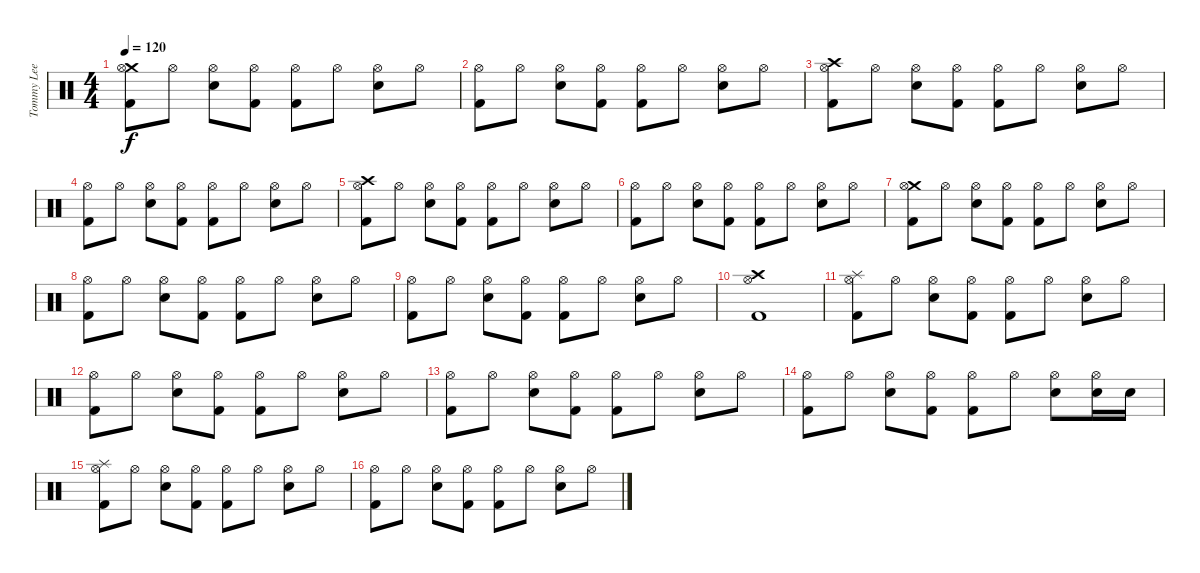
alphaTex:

\track ("Tommy Lee" "Tommy Lee") {instrument percussion}
\staff {score}
\articulation defaults
\ts (4 4)
\tempo 120
\clef neutral
\ks c
("Crash medium (hit)" "Hi-Hat (open)" "Kick (hit) 2").8{dy f} "Hi-Hat (open)".8 ("Hi-Hat (open)" "Electric Snare (hit)").8 ("Hi-Hat (open)" "Kick (hit) 2").8 ("Hi-Hat (open)" "Kick (hit) 2").8 "Hi-Hat (open)".8 ("Hi-Hat (open)" "Electric Snare (hit)").8 "Hi-Hat (open)".8 |
("Hi-Hat (open)" "Kick (hit) 2").8 "Hi-Hat (open)".8 ("Hi-Hat (open)" "Electric Snare (hit)").8 ("Hi-Hat (open)" "Kick (hit) 2").8 ("Hi-Hat (open)" "Kick (hit) 2").8 "Hi-Hat (open)".8 ("Hi-Hat (open)" "Electric Snare (hit)").8 "Hi-Hat (open)".8 |
("Crash high (hit)" "Hi-Hat (open)" "Kick (hit) 2").8 "Hi-Hat (open)".8 ("Hi-Hat (open)" "Electric Snare (hit)").8 ("Hi-Hat (open)" "Kick (hit) 2").8 ("Hi-Hat (open)" "Kick (hit) 2").8 "Hi-Hat (open)".8 ("Hi-Hat (open)" "Electric Snare (hit)").8 "Hi-Hat (open)".8 |
("Hi-Hat (open)" "Kick (hit) 2").8 "Hi-Hat (open)".8 ("Hi-Hat (open)" "Electric Snare (hit)").8 ("Hi-Hat (open)" "Kick (hit) 2").8 ("Hi-Hat (open)" "Kick (hit) 2").8 "Hi-Hat (open)".8 ("Hi-Hat (open)" "Electric Snare (hit)").8 "Hi-Hat (open)".8 |
("Crash high (hit)" "Hi-Hat (open)" "Kick (hit) 2").8 "Hi-Hat (open)".8 ("Hi-Hat (open)" "Electric Snare (hit)").8 ("Hi-Hat (open)" "Kick (hit) 2").8 ("Hi-Hat (open)" "Kick (hit) 2").8 "Hi-Hat (open)".8 ("Hi-Hat (open)" "Electric Snare (hit)").8 "Hi-Hat (open)".8 |
("Hi-Hat (open)" "Kick (hit) 2").8 "Hi-Hat (open)".8 ("Hi-Hat (open)" "Electric Snare (hit)").8 ("Hi-Hat (open)" "Kick (hit) 2").8 ("Hi-Hat (open)" "Kick (hit) 2").8 "Hi-Hat (open)".8 ("Hi-Hat (open)" "Electric Snare (hit)").8 "Hi-Hat (open)".8 |
("Crash medium (hit)" "Hi-Hat (open)" "Kick (hit) 2").8 "Hi-Hat (open)".8 ("Hi-Hat (open)" "Electric Snare (hit)").8 ("Hi-Hat (open)" "Kick (hit) 2").8 ("Hi-Hat (open)" "Kick (hit) 2").8 "Hi-Hat (open)".8 ("Hi-Hat (open)" "Electric Snare (hit)").8 "Hi-Hat (open)".8 |
("Hi-Hat (open)" "Kick (hit) 2").8 "Hi-Hat (open)".8 ("Hi-Hat (open)" "Electric Snare (hit)").8 ("Hi-Hat (open)" "Kick (hit) 2").8 ("Hi-Hat (open)" "Kick (hit) 2").8 "Hi-Hat (open)".8 ("Hi-Hat (open)" "Electric Snare (hit)").8 "Hi-Hat (open)".8 |
("Hi-Hat (open)" "Kick (hit) 2").8 "Hi-Hat (open)".8 ("Hi-Hat (open)" "Electric Snare (hit)").8 ("Hi-Hat (open)" "Kick (hit) 2").8 ("Hi-Hat (open)" "Kick (hit) 2").8 "Hi-Hat (open)".8 ("Hi-Hat (open)" "Electric Snare (hit)").8 "Hi-Hat (open)".8 |
("Crash high (hit)" "Hi-Hat (open)" "Kick (hit) 2").1 |
("Splash (hit)" "Hi-Hat (open)" "Kick (hit) 2").8 "Hi-Hat (open)".8 ("Hi-Hat (open)" "Electric Snare (hit)").8 ("Hi-Hat (open)" "Kick (hit) 2").8 ("Hi-Hat (open)" "Kick (hit) 2").8 "Hi-Hat (open)".8 ("Hi-Hat (open)" "Electric Snare (hit)").8 "Hi-Hat (open)".8 |
("Hi-Hat (open)" "Kick (hit) 2").8 "Hi-Hat (open)".8 ("Hi-Hat (open)" "Electric Snare (hit)").8 ("Hi-Hat (open)" "Kick (hit) 2").8 ("Hi-Hat (open)" "Kick (hit) 2").8 "Hi-Hat (open)".8 ("Hi-Hat (open)" "Electric Snare (hit)").8 "Hi-Hat (open)".8 |
("Hi-Hat (open)" "Kick (hit) 2").8 "Hi-Hat (open)".8 ("Hi-Hat (open)" "Electric Snare (hit)").8 ("Hi-Hat (open)" "Kick (hit) 2").8 ("Hi-Hat (open)" "Kick (hit) 2").8 "Hi-Hat (open)".8 ("Hi-Hat (open)" "Electric Snare (hit)").8 "Hi-Hat (open)".8 |
("Hi-Hat (open)" "Kick (hit) 2").8 "Hi-Hat (open)".8 ("Hi-Hat (open)" "Electric Snare (hit)").8 ("Hi-Hat (open)" "Kick (hit) 2").8 ("Hi-Hat (open)" "Kick (hit) 2").8 "Hi-Hat (open)".8 ("Hi-Hat (open)" "Electric Snare (hit)").8 ("Hi-Hat (open)" "Snare (hit) 2").16 "Snare (hit) 2".16 |
("Splash (hit)" "Hi-Hat (open)" "Kick (hit) 2").8 "Hi-Hat (open)".8 ("Hi-Hat (open)" "Electric Snare (hit)").8 ("Hi-Hat (open)" "Kick (hit) 2").8 ("Hi-Hat (open)" "Kick (hit) 2").8 "Hi-Hat (open)".8 ("Hi-Hat (open)" "Electric Snare (hit)").8 "Hi-Hat (open)".8 |
("Hi-Hat (open)" "Kick (hit) 2").8 "Hi-Hat (open)".8 ("Hi-Hat (open)" "Electric Snare (hit)").8 ("Hi-Hat (open)" "Kick (hit) 2").8 ("Hi-Hat (open)" "Kick (hit) 2").8 "Hi-Hat (open)".8 ("Hi-Hat (open)" "Electric Snare (hit)").8 "Hi-Hat (open)".8
